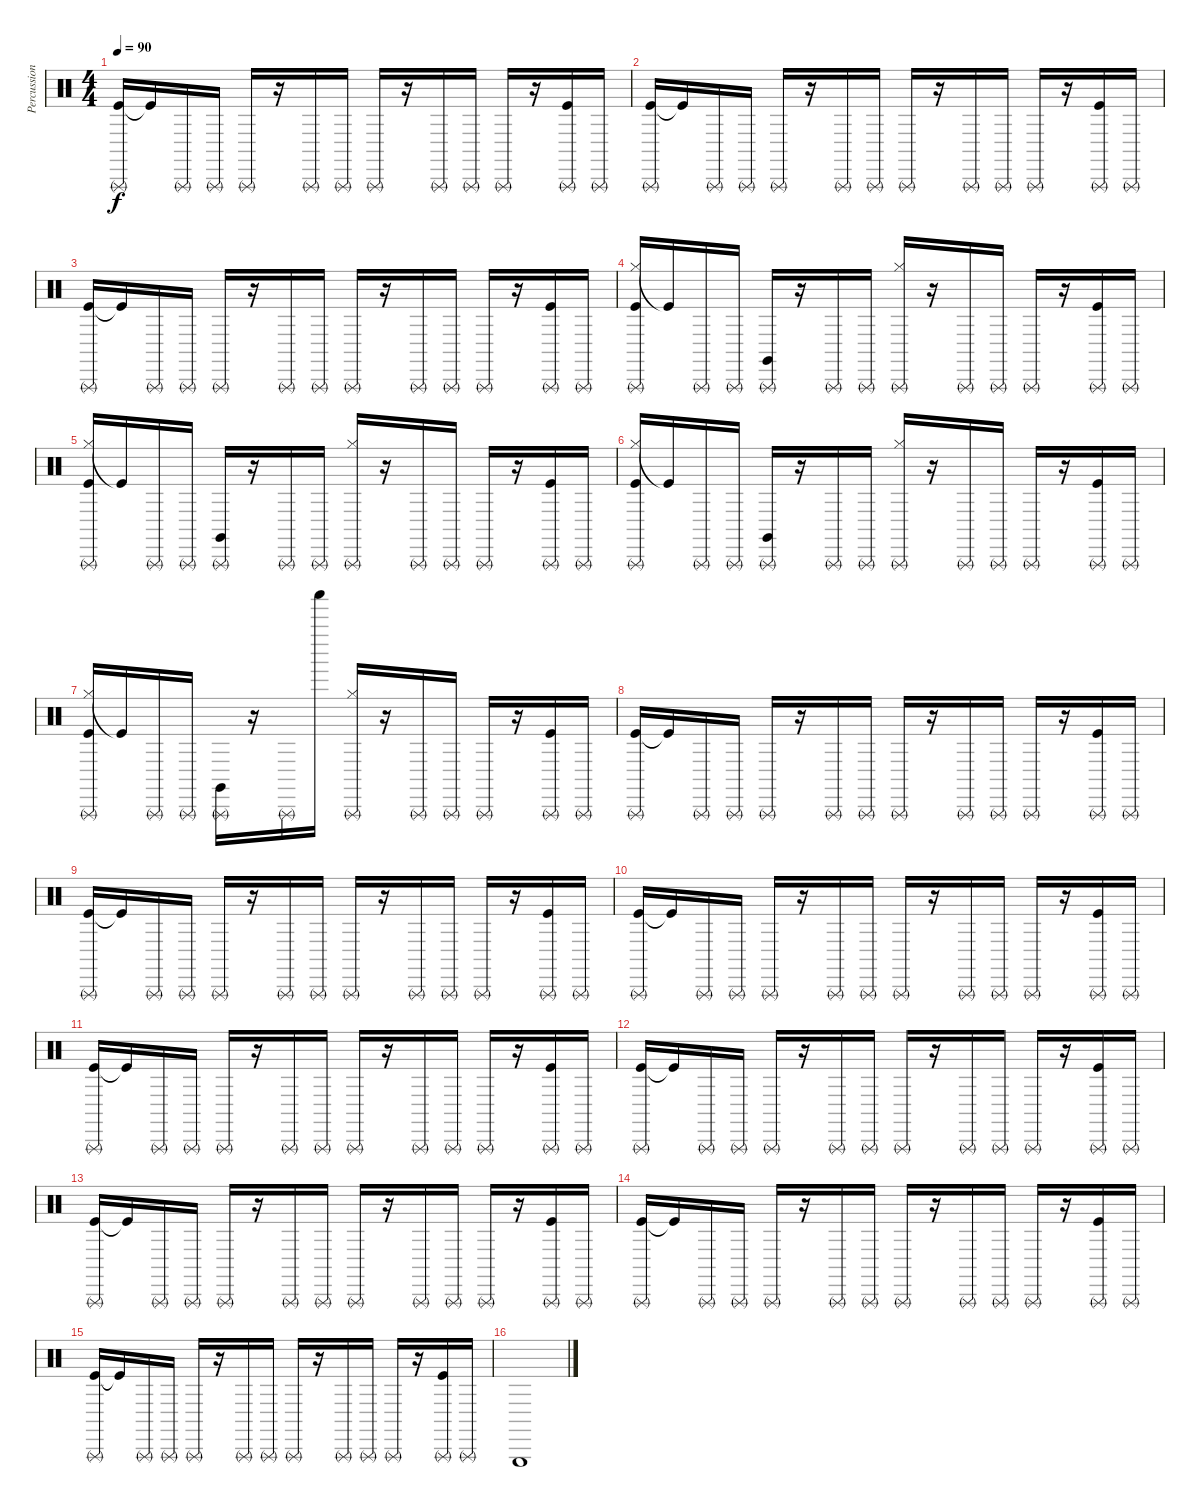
\track ("Percussion" "Percussion") {instrument percussion}
\staff {score}
\articulation defaults
\ts (4 4)
\tempo 90
\clef neutral
\ks c
("Kick (hit)" "Triangle (rnute)").16{dy f} "Kick (hit)"{t}.16 "Triangle (rnute)".16 "Triangle (rnute)".16 "Triangle (rnute)".16 r.16 "Triangle (rnute)".16 "Triangle (rnute)".16 "Triangle (rnute)".16 r.16 "Triangle (rnute)".16 "Triangle (rnute)".16 "Triangle (rnute)".16 r.16 ("Kick (hit)" "Triangle (rnute)").16 "Triangle (rnute)".16 |
("Kick (hit)" "Triangle (rnute)").16 "Kick (hit)"{t}.16 "Triangle (rnute)".16 "Triangle (rnute)".16 "Triangle (rnute)".16 r.16 "Triangle (rnute)".16 "Triangle (rnute)".16 "Triangle (rnute)".16 r.16 "Triangle (rnute)".16 "Triangle (rnute)".16 "Triangle (rnute)".16 r.16 ("Kick (hit)" "Triangle (rnute)").16 "Triangle (rnute)".16 |
("Kick (hit)" "Triangle (rnute)").16 "Kick (hit)"{t}.16 "Triangle (rnute)".16 "Triangle (rnute)".16 "Triangle (rnute)".16 r.16 "Triangle (rnute)".16 "Triangle (rnute)".16 "Triangle (rnute)".16 r.16 "Triangle (rnute)".16 "Triangle (rnute)".16 "Triangle (rnute)".16 r.16 ("Kick (hit)" "Triangle (rnute)").16 "Triangle (rnute)".16 |
("Hi-Hat (closed)" "Kick (hit)" "Triangle (rnute)").16 "Kick (hit)"{t}.16 "Triangle (rnute)".16 "Triangle (rnute)".16 ("Claves (hit)" "Triangle (rnute)").16 r.16 "Triangle (rnute)".16 "Triangle (rnute)".16 ("Hi-Hat (closed)" "Triangle (rnute)").16 r.16 "Triangle (rnute)".16 "Triangle (rnute)".16 "Triangle (rnute)".16 r.16 ("Kick (hit)" "Triangle (rnute)").16 "Triangle (rnute)".16 |
("Hi-Hat (closed)" "Kick (hit)" "Triangle (rnute)").16 "Kick (hit)"{t}.16 "Triangle (rnute)".16 "Triangle (rnute)".16 ("Claves (hit)" "Triangle (rnute)").16 r.16 "Triangle (rnute)".16 "Triangle (rnute)".16 ("Hi-Hat (closed)" "Triangle (rnute)").16 r.16 "Triangle (rnute)".16 "Triangle (rnute)".16 "Triangle (rnute)".16 r.16 ("Kick (hit)" "Triangle (rnute)").16 "Triangle (rnute)".16 |
("Hi-Hat (closed)" "Kick (hit)" "Triangle (rnute)").16 "Kick (hit)"{t}.16 "Triangle (rnute)".16 "Triangle (rnute)".16 ("Claves (hit)" "Triangle (rnute)").16 r.16 "Triangle (rnute)".16 "Triangle (rnute)".16 ("Hi-Hat (closed)" "Triangle (rnute)").16 r.16 "Triangle (rnute)".16 "Triangle (rnute)".16 "Triangle (rnute)".16 r.16 ("Kick (hit)" "Triangle (rnute)").16 "Triangle (rnute)".16 |
("Hi-Hat (closed)" "Kick (hit)" "Triangle (rnute)").16 "Kick (hit)"{t}.16 "Triangle (rnute)".16 "Triangle (rnute)".16 ("Claves (hit)" "Triangle (rnute)").16 r.16 "Triangle (rnute)".16 "Shaker (hit)".16 ("Hi-Hat (closed)" "Triangle (rnute)").16 r.16 "Triangle (rnute)".16 "Triangle (rnute)".16 "Triangle (rnute)".16 r.16 ("Kick (hit)" "Triangle (rnute)").16 "Triangle (rnute)".16 |
("Kick (hit)" "Triangle (rnute)").16 "Kick (hit)"{t}.16 "Triangle (rnute)".16 "Triangle (rnute)".16 "Triangle (rnute)".16 r.16 "Triangle (rnute)".16 "Triangle (rnute)".16 "Triangle (rnute)".16 r.16 "Triangle (rnute)".16 "Triangle (rnute)".16 "Triangle (rnute)".16 r.16 ("Kick (hit)" "Triangle (rnute)").16 "Triangle (rnute)".16 |
("Kick (hit)" "Triangle (rnute)").16 "Kick (hit)"{t}.16 "Triangle (rnute)".16 "Triangle (rnute)".16 "Triangle (rnute)".16 r.16 "Triangle (rnute)".16 "Triangle (rnute)".16 "Triangle (rnute)".16 r.16 "Triangle (rnute)".16 "Triangle (rnute)".16 "Triangle (rnute)".16 r.16 ("Kick (hit)" "Triangle (rnute)").16 "Triangle (rnute)".16 |
("Kick (hit)" "Triangle (rnute)").16 "Kick (hit)"{t}.16 "Triangle (rnute)".16 "Triangle (rnute)".16 "Triangle (rnute)".16 r.16 "Triangle (rnute)".16 "Triangle (rnute)".16 "Triangle (rnute)".16 r.16 "Triangle (rnute)".16 "Triangle (rnute)".16 "Triangle (rnute)".16 r.16 ("Kick (hit)" "Triangle (rnute)").16 "Triangle (rnute)".16 |
("Kick (hit)" "Triangle (rnute)").16 "Kick (hit)"{t}.16 "Triangle (rnute)".16 "Triangle (rnute)".16 "Triangle (rnute)".16 r.16 "Triangle (rnute)".16 "Triangle (rnute)".16 "Triangle (rnute)".16 r.16 "Triangle (rnute)".16 "Triangle (rnute)".16 "Triangle (rnute)".16 r.16 ("Kick (hit)" "Triangle (rnute)").16 "Triangle (rnute)".16 |
("Kick (hit)" "Triangle (rnute)").16 "Kick (hit)"{t}.16 "Triangle (rnute)".16 "Triangle (rnute)".16 "Triangle (rnute)".16 r.16 "Triangle (rnute)".16 "Triangle (rnute)".16 "Triangle (rnute)".16 r.16 "Triangle (rnute)".16 "Triangle (rnute)".16 "Triangle (rnute)".16 r.16 ("Kick (hit)" "Triangle (rnute)").16 "Triangle (rnute)".16 |
("Kick (hit)" "Triangle (rnute)").16 "Kick (hit)"{t}.16 "Triangle (rnute)".16 "Triangle (rnute)".16 "Triangle (rnute)".16 r.16 "Triangle (rnute)".16 "Triangle (rnute)".16 "Triangle (rnute)".16 r.16 "Triangle (rnute)".16 "Triangle (rnute)".16 "Triangle (rnute)".16 r.16 ("Kick (hit)" "Triangle (rnute)").16 "Triangle (rnute)".16 |
("Kick (hit)" "Triangle (rnute)").16 "Kick (hit)"{t}.16 "Triangle (rnute)".16 "Triangle (rnute)".16 "Triangle (rnute)".16 r.16 "Triangle (rnute)".16 "Triangle (rnute)".16 "Triangle (rnute)".16 r.16 "Triangle (rnute)".16 "Triangle (rnute)".16 "Triangle (rnute)".16 r.16 ("Kick (hit)" "Triangle (rnute)").16 "Triangle (rnute)".16 |
("Kick (hit)" "Triangle (rnute)").16 "Kick (hit)"{t}.16 "Triangle (rnute)".16 "Triangle (rnute)".16 "Triangle (rnute)".16 r.16 "Triangle (rnute)".16 "Triangle (rnute)".16 "Triangle (rnute)".16 r.16 "Triangle (rnute)".16 "Triangle (rnute)".16 "Triangle (rnute)".16 r.16 ("Kick (hit)" "Triangle (rnute)").16 "Triangle (rnute)".16 |
"Triangle (hit)".1
